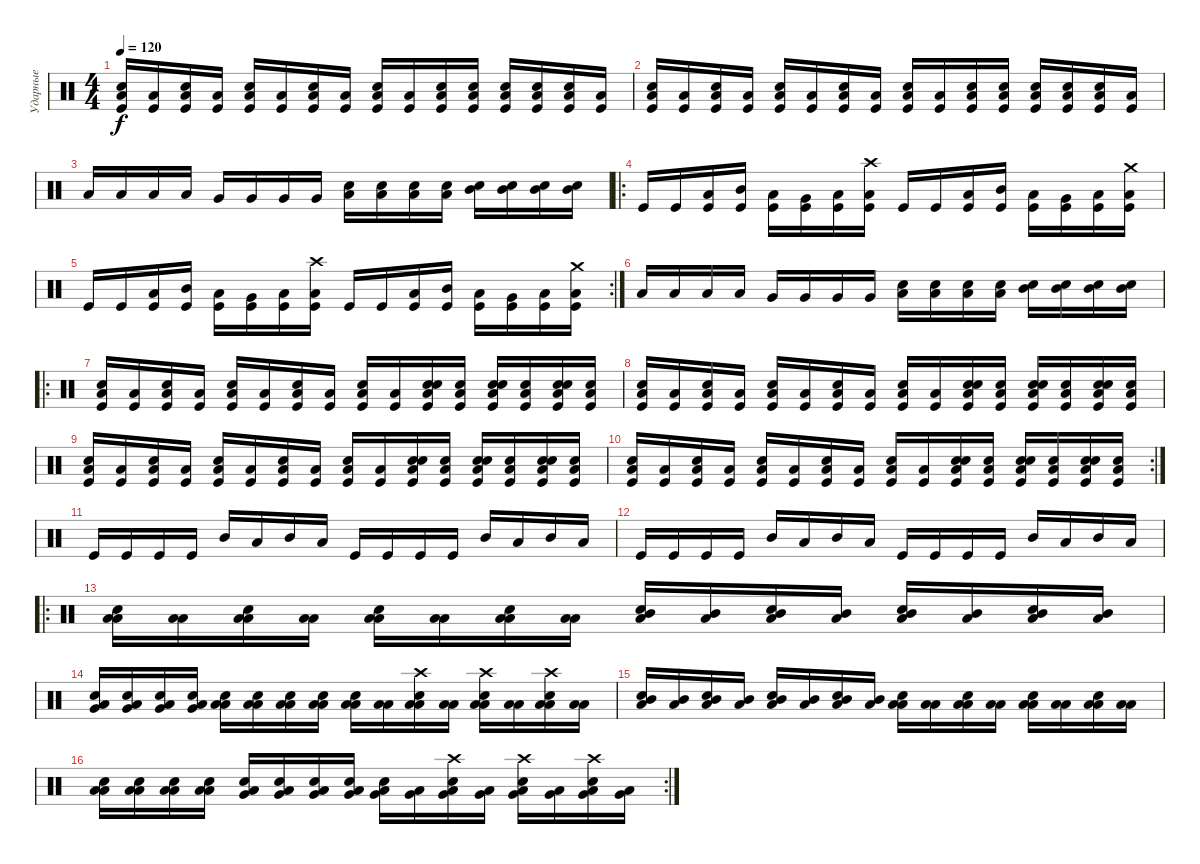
\track ("Ударные" "Ударные") {instrument percussion}
\staff {score}
\articulation defaults
\ts (4 4)
\tempo 120
\clef neutral
\ks c
("Low Tom (hit)" "Electric Snare (hit)" "Kick (hit)").16{dy f} ("Low Tom (hit)" "Kick (hit)").16 ("Low Tom (hit)" "Electric Snare (hit)" "Kick (hit)").16 ("Low Tom (hit)" "Kick (hit)").16 ("Low Tom (hit)" "Electric Snare (hit)" "Kick (hit)").16 ("Low Tom (hit)" "Kick (hit)").16 ("Low Tom (hit)" "Electric Snare (hit)" "Kick (hit)").16 ("Low Tom (hit)" "Kick (hit)").16 ("Low Tom (hit)" "Electric Snare (hit)" "Kick (hit)").16 ("Low Tom (hit)" "Kick (hit)").16 ("Low Tom (hit)" "Electric Snare (hit)" "Kick (hit)").16 ("Low Tom (hit)" "Electric Snare (hit)" "Kick (hit)").16 ("Low Tom (hit)" "Electric Snare (hit)" "Kick (hit)").16 ("Low Tom (hit)" "Electric Snare (hit)" "Kick (hit)").16 ("Low Tom (hit)" "Electric Snare (hit)" "Kick (hit)").16 ("Low Tom (hit)" "Kick (hit)").16 |
("Low Tom (hit)" "Electric Snare (hit)" "Kick (hit)").16 ("Low Tom (hit)" "Kick (hit)").16 ("Low Tom (hit)" "Electric Snare (hit)" "Kick (hit)").16 ("Low Tom (hit)" "Kick (hit)").16 ("Low Tom (hit)" "Electric Snare (hit)" "Kick (hit)").16 ("Low Tom (hit)" "Kick (hit)").16 ("Low Tom (hit)" "Electric Snare (hit)" "Kick (hit)").16 ("Low Tom (hit)" "Kick (hit)").16 ("Low Tom (hit)" "Electric Snare (hit)" "Kick (hit)").16 ("Low Tom (hit)" "Kick (hit)").16 ("Low Tom (hit)" "Electric Snare (hit)" "Kick (hit)").16 ("Low Tom (hit)" "Electric Snare (hit)" "Kick (hit)").16 ("Low Tom (hit)" "Electric Snare (hit)" "Kick (hit)").16 ("Low Tom (hit)" "Electric Snare (hit)" "Kick (hit)").16 ("Low Tom (hit)" "Electric Snare (hit)" "Kick (hit)").16 ("Low Tom (hit)" "Kick (hit)").16 |
"Low Floor Tom (hit)".16 "Low Floor Tom (hit)".16 "Low Floor Tom (hit)".16 "Low Floor Tom (hit)".16 "Very Low Tom (hit)".16 "Very Low Tom (hit)".16 "Very Low Tom (hit)".16 "Very Low Tom (hit)".16 ("Snare (hit) 2" "Low Tom (hit)").16 ("Snare (hit) 2" "Low Tom (hit)").16 ("Snare (hit) 2" "Low Tom (hit)").16 ("Snare (hit) 2" "Low Tom (hit)").16 ("Electric Snare (hit)" "Mid Tom (hit)").16 ("Electric Snare (hit)" "Mid Tom (hit)").16 ("Electric Snare (hit)" "Mid Tom (hit)").16 ("Electric Snare (hit)" "Mid Tom (hit)").16 |
\ro "Kick (hit)".16 "Kick (hit)".16
("Low Tom (hit)" "Kick (hit)").16 ("Mid Tom (hit)" "Kick (hit)").16 ("Low Tom (hit)" "Kick (hit)").16 ("Very Low Tom (hit)" "Kick (hit)").16 ("Low Tom (hit)" "Kick (hit)").16 ("Crash high (hit)" "Low Floor Tom (hit)" "Kick (hit)").16 "Kick (hit)".16 "Kick (hit)".16 ("Low Tom (hit)" "Kick (hit)").16 ("Mid Tom (hit)" "Kick (hit)").16 ("Low Tom (hit)" "Kick (hit)").16 ("Very Low Tom (hit)" "Kick (hit)").16 ("Low Tom (hit)" "Kick (hit)").16 ("Crash medium (hit)" "Low Floor Tom (hit)" "Kick (hit)").16 |
\rc 2 "Kick (hit)".16 "Kick (hit)".16
("Low Tom (hit)" "Kick (hit)").16 ("Mid Tom (hit)" "Kick (hit)").16 ("Low Tom (hit)" "Kick (hit)").16 ("Very Low Tom (hit)" "Kick (hit)").16 ("Low Tom (hit)" "Kick (hit)").16 ("Crash high (hit)" "Low Floor Tom (hit)" "Kick (hit)").16 "Kick (hit)".16 "Kick (hit)".16 ("Low Tom (hit)" "Kick (hit)").16 ("Mid Tom (hit)" "Kick (hit)").16 ("Low Tom (hit)" "Kick (hit)").16 ("Very Low Tom (hit)" "Kick (hit)").16 ("Low Tom (hit)" "Kick (hit)").16 ("Crash medium (hit)" "Low Floor Tom (hit)" "Kick (hit)").16 |
"Low Floor Tom (hit)".16 "Low Floor Tom (hit)".16 "Low Floor Tom (hit)".16 "Low Floor Tom (hit)".16 "Very Low Tom (hit)".16 "Very Low Tom (hit)".16 "Very Low Tom (hit)".16 "Very Low Tom (hit)".16 ("Snare (hit) 2" "Low Tom (hit)").16 ("Snare (hit) 2" "Low Tom (hit)").16 ("Snare (hit) 2" "Low Tom (hit)").16 ("Snare (hit) 2" "Low Tom (hit)").16 ("Electric Snare (hit)" "Mid Tom (hit)").16 ("Electric Snare (hit)" "Mid Tom (hit)").16 ("Electric Snare (hit)" "Mid Tom (hit)").16 ("Electric Snare (hit)" "Mid Tom (hit)").16 |
\ro
("Low Tom (hit)" "Snare (hit) 2" "Kick (hit)").16 ("Low Tom (hit)" "Kick (hit)").16 ("Low Tom (hit)" "Snare (hit) 2" "Kick (hit)").16 ("Low Tom (hit)" "Kick (hit)").16 ("Low Tom (hit)" "Snare (hit) 2" "Kick (hit)").16 ("Low Tom (hit)" "Kick (hit)").16 ("Low Tom (hit)" "Snare (hit) 2" "Kick (hit)").16 ("Low Tom (hit)" "Kick (hit)").16 ("Low Tom (hit)" "Snare (hit) 2" "Kick (hit)").16 ("Low Tom (hit)" "Kick (hit)").16 ("Electric Snare (hit)" "Low Tom (hit)" "Snare (hit) 2" "Kick (hit)").16 ("Electric Snare (hit)" "Low Tom (hit)" "Kick (hit)").16 ("Electric Snare (hit)" "Low Tom (hit)" "Snare (hit) 2" "Kick (hit)").16 ("Electric Snare (hit)" "Low Tom (hit)" "Kick (hit)").16 ("Electric Snare (hit)" "Low Tom (hit)" "Snare (hit) 2" "Kick (hit)").16 ("Electric Snare (hit)" "Low Tom (hit)" "Kick (hit)").16 |
("Low Tom (hit)" "Snare (hit) 2" "Kick (hit)").16 ("Low Tom (hit)" "Kick (hit)").16 ("Low Tom (hit)" "Snare (hit) 2" "Kick (hit)").16 ("Low Tom (hit)" "Kick (hit)").16 ("Low Tom (hit)" "Snare (hit) 2" "Kick (hit)").16 ("Low Tom (hit)" "Kick (hit)").16 ("Low Tom (hit)" "Snare (hit) 2" "Kick (hit)").16 ("Low Tom (hit)" "Kick (hit)").16 ("Low Tom (hit)" "Snare (hit) 2" "Kick (hit)").16 ("Low Tom (hit)" "Kick (hit)").16 ("Electric Snare (hit)" "Low Tom (hit)" "Snare (hit) 2" "Kick (hit)").16 ("Electric Snare (hit)" "Low Tom (hit)" "Kick (hit)").16 ("Electric Snare (hit)" "Low Tom (hit)" "Snare (hit) 2" "Kick (hit)").16 ("Electric Snare (hit)" "Low Tom (hit)" "Kick (hit)").16 ("Electric Snare (hit)" "Low Tom (hit)" "Snare (hit) 2" "Kick (hit)").16 ("Electric Snare (hit)" "Low Tom (hit)" "Kick (hit)").16 |
("Low Tom (hit)" "Snare (hit) 2" "Kick (hit)").16 ("Low Tom (hit)" "Kick (hit)").16 ("Low Tom (hit)" "Snare (hit) 2" "Kick (hit)").16 ("Low Tom (hit)" "Kick (hit)").16 ("Low Tom (hit)" "Snare (hit) 2" "Kick (hit)").16 ("Low Tom (hit)" "Kick (hit)").16 ("Low Tom (hit)" "Snare (hit) 2" "Kick (hit)").16 ("Low Tom (hit)" "Kick (hit)").16 ("Low Tom (hit)" "Snare (hit) 2" "Kick (hit)").16 ("Low Tom (hit)" "Kick (hit)").16 ("Electric Snare (hit)" "Low Tom (hit)" "Snare (hit) 2" "Kick (hit)").16 ("Electric Snare (hit)" "Low Tom (hit)" "Kick (hit)").16 ("Electric Snare (hit)" "Low Tom (hit)" "Snare (hit) 2" "Kick (hit)").16 ("Electric Snare (hit)" "Low Tom (hit)" "Kick (hit)").16 ("Electric Snare (hit)" "Low Tom (hit)" "Snare (hit) 2" "Kick (hit)").16 ("Electric Snare (hit)" "Low Tom (hit)" "Kick (hit)").16 |
\rc 2
("Low Tom (hit)" "Snare (hit) 2" "Kick (hit)").16 ("Low Tom (hit)" "Kick (hit)").16 ("Low Tom (hit)" "Snare (hit) 2" "Kick (hit)").16 ("Low Tom (hit)" "Kick (hit)").16 ("Low Tom (hit)" "Snare (hit) 2" "Kick (hit)").16 ("Low Tom (hit)" "Kick (hit)").16 ("Low Tom (hit)" "Snare (hit) 2" "Kick (hit)").16 ("Low Tom (hit)" "Kick (hit)").16 ("Low Tom (hit)" "Snare (hit) 2" "Kick (hit)").16 ("Low Tom (hit)" "Kick (hit)").16 ("Electric Snare (hit)" "Low Tom (hit)" "Snare (hit) 2" "Kick (hit)").16 ("Electric Snare (hit)" "Low Tom (hit)" "Kick (hit)").16 ("Electric Snare (hit)" "Low Tom (hit)" "Snare (hit) 2" "Kick (hit)").16 ("Electric Snare (hit)" "Low Tom (hit)" "Kick (hit)").16 ("Electric Snare (hit)" "Low Tom (hit)" "Snare (hit) 2" "Kick (hit)").16 ("Electric Snare (hit)" "Low Tom (hit)" "Kick (hit)").16 |
"Kick (hit)".16 "Kick (hit)".16 "Kick (hit)".16 "Kick (hit)".16 "Mid Tom (hit)".16 "Low Tom (hit)".16 "Mid Tom (hit)".16 "Low Tom (hit)".16 "Kick (hit)".16 "Kick (hit)".16 "Kick (hit)".16 "Kick (hit)".16 "Mid Tom (hit)".16 "Low Tom (hit)".16 "Mid Tom (hit)".16 "Low Tom (hit)".16 |
"Kick (hit)".16 "Kick (hit)".16 "Kick (hit)".16 "Kick (hit)".16 "Mid Tom (hit)".16 "Low Tom (hit)".16 "Mid Tom (hit)".16 "Low Tom (hit)".16 "Kick (hit)".16 "Kick (hit)".16 "Kick (hit)".16 "Kick (hit)".16 "Mid Tom (hit)".16 "Low Tom (hit)".16 "Mid Tom (hit)".16 "Low Tom (hit)".16 |
\ro
("Low Tom (hit)" "Electric Snare (hit)" "Low Tom (hit)").16 ("Low Tom (hit)" "Low Tom (hit)").16 ("Low Tom (hit)" "Electric Snare (hit)" "Low Tom (hit)").16 ("Low Tom (hit)" "Low Tom (hit)").16 ("Low Tom (hit)" "Electric Snare (hit)" "Low Tom (hit)").16 ("Low Tom (hit)" "Low Tom (hit)").16 ("Low Tom (hit)" "Electric Snare (hit)" "Low Tom (hit)").16 ("Low Tom (hit)" "Low Tom (hit)").16 ("Low Tom (hit)" "Snare (hit) 2" "Mid Tom (hit)").16 ("Low Tom (hit)" "Mid Tom (hit)").16 ("Low Tom (hit)" "Snare (hit) 2" "Mid Tom (hit)").16 ("Low Tom (hit)" "Mid Tom (hit)").16 ("Low Tom (hit)" "Snare (hit) 2" "Mid Tom (hit)").16 ("Low Tom (hit)" "Mid Tom (hit)").16 ("Low Tom (hit)" "Snare (hit) 2" "Mid Tom (hit)").16 ("Low Tom (hit)" "Mid Tom (hit)").16 |
("Low Tom (hit)" "Electric Snare (hit)" "Very Low Tom (hit)").16 ("Low Tom (hit)" "Electric Snare (hit)" "Very Low Tom (hit)").16 ("Low Tom (hit)" "Electric Snare (hit)" "Very Low Tom (hit)").16 ("Low Tom (hit)" "Electric Snare (hit)" "Very Low Tom (hit)").16 ("Low Tom (hit)" "Snare (hit) 2" "Low Floor Tom (hit)").16 ("Low Tom (hit)" "Snare (hit) 2" "Low Floor Tom (hit)").16 ("Low Tom (hit)" "Snare (hit) 2" "Low Floor Tom (hit)").16 ("Low Tom (hit)" "Snare (hit) 2" "Low Floor Tom (hit)").16 ("Low Tom (hit)" "Snare (hit) 2" "Low Floor Tom (hit)").16 ("Low Tom (hit)" "Low Floor Tom (hit)").16 ("Low Tom (hit)" "Snare (hit) 2" "Crash high (hit)" "Low Floor Tom (hit)").16 ("Low Tom (hit)" "Low Floor Tom (hit)").16 ("Low Tom (hit)" "Snare (hit) 2" "Crash high (hit)" "Low Floor Tom (hit)").16 ("Low Tom (hit)" "Low Floor Tom (hit)").16 ("Low Tom (hit)" "Snare (hit) 2" "Crash high (hit)" "Low Floor Tom (hit)").16 ("Low Tom (hit)" "Low Floor Tom (hit)").16 |
("Low Tom (hit)" "Snare (hit) 2" "Mid Tom (hit)").16 ("Low Tom (hit)" "Mid Tom (hit)").16 ("Low Tom (hit)" "Snare (hit) 2" "Mid Tom (hit)").16 ("Low Tom (hit)" "Mid Tom (hit)").16 ("Low Tom (hit)" "Snare (hit) 2" "Mid Tom (hit)").16 ("Low Tom (hit)" "Mid Tom (hit)").16 ("Low Tom (hit)" "Snare (hit) 2" "Mid Tom (hit)").16 ("Low Tom (hit)" "Mid Tom (hit)").16 ("Low Tom (hit)" "Electric Snare (hit)" "Low Tom (hit)").16 ("Low Tom (hit)" "Low Tom (hit)").16 ("Low Tom (hit)" "Electric Snare (hit)" "Low Tom (hit)").16 ("Low Tom (hit)" "Low Tom (hit)").16 ("Low Tom (hit)" "Electric Snare (hit)" "Low Tom (hit)").16 ("Low Tom (hit)" "Low Tom (hit)").16 ("Low Tom (hit)" "Electric Snare (hit)" "Low Tom (hit)").16 ("Low Tom (hit)" "Low Tom (hit)").16 |
\rc 2
("Low Tom (hit)" "Snare (hit) 2" "Low Floor Tom (hit)").16 ("Low Tom (hit)" "Snare (hit) 2" "Low Floor Tom (hit)").16 ("Low Tom (hit)" "Snare (hit) 2" "Low Floor Tom (hit)").16 ("Low Tom (hit)" "Snare (hit) 2" "Low Floor Tom (hit)").16 ("Low Tom (hit)" "Electric Snare (hit)" "Very Low Tom (hit)").16 ("Low Tom (hit)" "Electric Snare (hit)" "Very Low Tom (hit)").16 ("Low Tom (hit)" "Electric Snare (hit)" "Very Low Tom (hit)").16 ("Low Tom (hit)" "Electric Snare (hit)" "Very Low Tom (hit)").16 ("Low Tom (hit)" "Electric Snare (hit)" "Very Low Tom (hit)").16 ("Low Tom (hit)" "Very Low Tom (hit)").16 ("Low Tom (hit)" "Electric Snare (hit)" "Crash high (hit)" "Very Low Tom (hit)").16 ("Low Tom (hit)" "Very Low Tom (hit)").16 ("Low Tom (hit)" "Electric Snare (hit)" "Crash high (hit)" "Very Low Tom (hit)").16 ("Low Tom (hit)" "Very Low Tom (hit)").16 ("Low Tom (hit)" "Electric Snare (hit)" "Crash high (hit)" "Very Low Tom (hit)").16 ("Low Tom (hit)" "Very Low Tom (hit)").16
